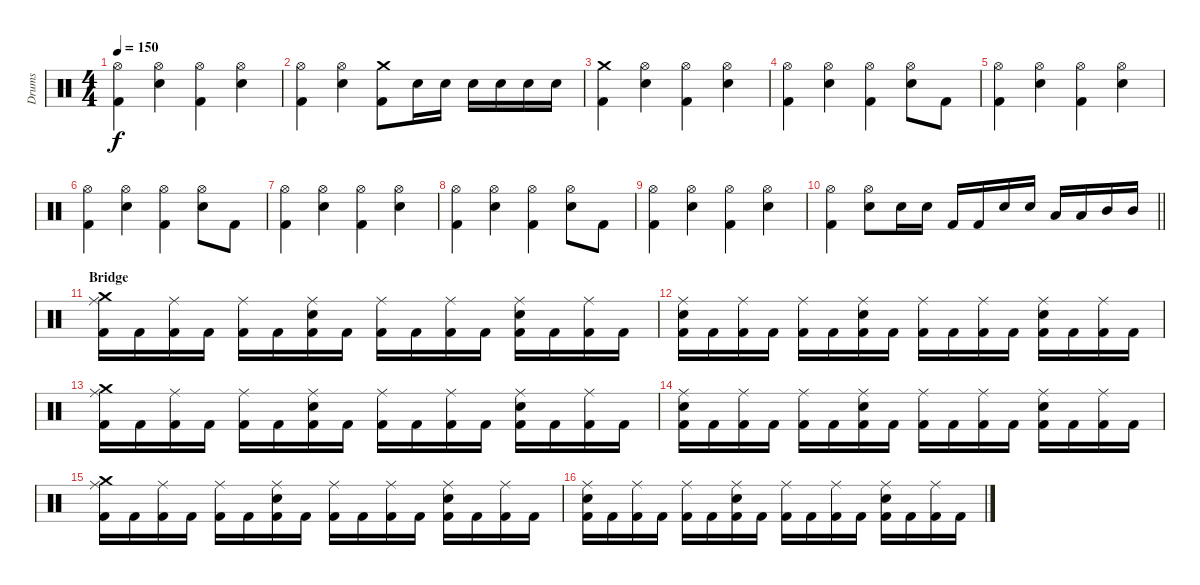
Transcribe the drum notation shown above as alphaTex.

\track ("Drums" "Drums") {instrument percussion}
\staff {score}
\articulation defaults
\ts (4 4)
\tempo 150
\clef neutral
\ks c
("Hi-Hat (open)" "Kick (hit) 2").4{dy f} ("Hi-Hat (open)" "Electric Snare (hit)").4 ("Hi-Hat (open)" "Kick (hit) 2").4 ("Hi-Hat (open)" "Electric Snare (hit)").4 |
("Hi-Hat (open)" "Kick (hit) 2").4 ("Hi-Hat (open)" "Electric Snare (hit)").4 ("Crash medium (hit)" "Kick (hit) 2").8 "Electric Snare (hit)".16 "Electric Snare (hit)".16 "Electric Snare (hit)".16 "Electric Snare (hit)".16 "Electric Snare (hit)".16 "Electric Snare (hit)".16 |
("Crash medium (hit)" "Kick (hit) 2").4 ("Hi-Hat (open)" "Electric Snare (hit)").4 ("Hi-Hat (open)" "Kick (hit) 2").4 ("Hi-Hat (open)" "Electric Snare (hit)").4 |
("Hi-Hat (open)" "Kick (hit) 2").4 ("Hi-Hat (open)" "Electric Snare (hit)").4 ("Hi-Hat (open)" "Kick (hit) 2").4 ("Hi-Hat (open)" "Electric Snare (hit)").8 "Kick (hit) 2".8 |
("Hi-Hat (open)" "Kick (hit) 2").4 ("Hi-Hat (open)" "Electric Snare (hit)").4 ("Hi-Hat (open)" "Kick (hit) 2").4 ("Hi-Hat (open)" "Electric Snare (hit)").4 |
("Hi-Hat (open)" "Kick (hit) 2").4 ("Hi-Hat (open)" "Electric Snare (hit)").4 ("Hi-Hat (open)" "Kick (hit) 2").4 ("Hi-Hat (open)" "Electric Snare (hit)").8 "Kick (hit) 2".8 |
("Hi-Hat (open)" "Kick (hit) 2").4 ("Hi-Hat (open)" "Electric Snare (hit)").4 ("Hi-Hat (open)" "Kick (hit) 2").4 ("Hi-Hat (open)" "Electric Snare (hit)").4 |
("Hi-Hat (open)" "Kick (hit) 2").4 ("Hi-Hat (open)" "Electric Snare (hit)").4 ("Hi-Hat (open)" "Kick (hit) 2").4 ("Hi-Hat (open)" "Electric Snare (hit)").8 "Kick (hit) 2".8 |
("Hi-Hat (open)" "Kick (hit) 2").4 ("Hi-Hat (open)" "Electric Snare (hit)").4 ("Hi-Hat (open)" "Kick (hit) 2").4 ("Hi-Hat (open)" "Electric Snare (hit)").4 |
\barLineRight lightlight
("Hi-Hat (open)" "Kick (hit) 2").4 ("Hi-Hat (open)" "Electric Snare (hit)").8 "Electric Snare (hit)".16 "Electric Snare (hit)".16 "Kick (hit) 2".16 "Kick (hit) 2".16 "Electric Snare (hit)".16 "Electric Snare (hit)".16 "Low Tom (hit)".16 "Low Tom (hit)".16 "Mid Tom (hit)".16 "Mid Tom (hit)".16 |
\section ("" "Bridge")
("Crash medium (hit)" "Ride (middle)" "Kick (hit) 2").16 "Kick (hit) 2".16 ("Ride (middle)" "Kick (hit) 2").16 "Kick (hit) 2".16 ("Ride (middle)" "Kick (hit) 2").16 "Kick (hit) 2".16 ("Ride (middle)" "Electric Snare (hit)" "Kick (hit) 2").16 "Kick (hit) 2".16 ("Ride (middle)" "Kick (hit) 2").16 "Kick (hit) 2".16 ("Ride (middle)" "Kick (hit) 2").16 "Kick (hit) 2".16 ("Ride (middle)" "Electric Snare (hit)" "Kick (hit) 2").16 "Kick (hit) 2".16 ("Ride (middle)" "Kick (hit) 2").16 "Kick (hit) 2".16 |
("Ride (middle)" "Electric Snare (hit)" "Kick (hit) 2").16 "Kick (hit) 2".16 ("Ride (middle)" "Kick (hit) 2").16 "Kick (hit) 2".16 ("Ride (middle)" "Kick (hit) 2").16 "Kick (hit) 2".16 ("Ride (middle)" "Electric Snare (hit)" "Kick (hit) 2").16 "Kick (hit) 2".16 ("Ride (middle)" "Kick (hit) 2").16 "Kick (hit) 2".16 ("Ride (middle)" "Kick (hit) 2").16 "Kick (hit) 2".16 ("Ride (middle)" "Electric Snare (hit)" "Kick (hit) 2").16 "Kick (hit) 2".16 ("Ride (middle)" "Kick (hit) 2").16 "Kick (hit) 2".16 |
("Crash medium (hit)" "Ride (middle)" "Kick (hit) 2").16 "Kick (hit) 2".16 ("Ride (middle)" "Kick (hit) 2").16 "Kick (hit) 2".16 ("Ride (middle)" "Kick (hit) 2").16 "Kick (hit) 2".16 ("Ride (middle)" "Electric Snare (hit)" "Kick (hit) 2").16 "Kick (hit) 2".16 ("Ride (middle)" "Kick (hit) 2").16 "Kick (hit) 2".16 ("Ride (middle)" "Kick (hit) 2").16 "Kick (hit) 2".16 ("Ride (middle)" "Electric Snare (hit)" "Kick (hit) 2").16 "Kick (hit) 2".16 ("Ride (middle)" "Kick (hit) 2").16 "Kick (hit) 2".16 |
("Ride (middle)" "Electric Snare (hit)" "Kick (hit) 2").16 "Kick (hit) 2".16 ("Ride (middle)" "Kick (hit) 2").16 "Kick (hit) 2".16 ("Ride (middle)" "Kick (hit) 2").16 "Kick (hit) 2".16 ("Ride (middle)" "Electric Snare (hit)" "Kick (hit) 2").16 "Kick (hit) 2".16 ("Ride (middle)" "Kick (hit) 2").16 "Kick (hit) 2".16 ("Ride (middle)" "Kick (hit) 2").16 "Kick (hit) 2".16 ("Ride (middle)" "Electric Snare (hit)" "Kick (hit) 2").16 "Kick (hit) 2".16 ("Ride (middle)" "Kick (hit) 2").16 "Kick (hit) 2".16 |
("Crash medium (hit)" "Ride (middle)" "Kick (hit) 2").16 "Kick (hit) 2".16 ("Ride (middle)" "Kick (hit) 2").16 "Kick (hit) 2".16 ("Ride (middle)" "Kick (hit) 2").16 "Kick (hit) 2".16 ("Ride (middle)" "Electric Snare (hit)" "Kick (hit) 2").16 "Kick (hit) 2".16 ("Ride (middle)" "Kick (hit) 2").16 "Kick (hit) 2".16 ("Ride (middle)" "Kick (hit) 2").16 "Kick (hit) 2".16 ("Ride (middle)" "Electric Snare (hit)" "Kick (hit) 2").16 "Kick (hit) 2".16 ("Ride (middle)" "Kick (hit) 2").16 "Kick (hit) 2".16 |
("Ride (middle)" "Electric Snare (hit)" "Kick (hit) 2").16 "Kick (hit) 2".16 ("Ride (middle)" "Kick (hit) 2").16 "Kick (hit) 2".16 ("Ride (middle)" "Kick (hit) 2").16 "Kick (hit) 2".16 ("Ride (middle)" "Electric Snare (hit)" "Kick (hit) 2").16 "Kick (hit) 2".16 ("Ride (middle)" "Kick (hit) 2").16 "Kick (hit) 2".16 ("Ride (middle)" "Kick (hit) 2").16 "Kick (hit) 2".16 ("Ride (middle)" "Electric Snare (hit)" "Kick (hit) 2").16 "Kick (hit) 2".16 ("Ride (middle)" "Kick (hit) 2").16 "Kick (hit) 2".16
